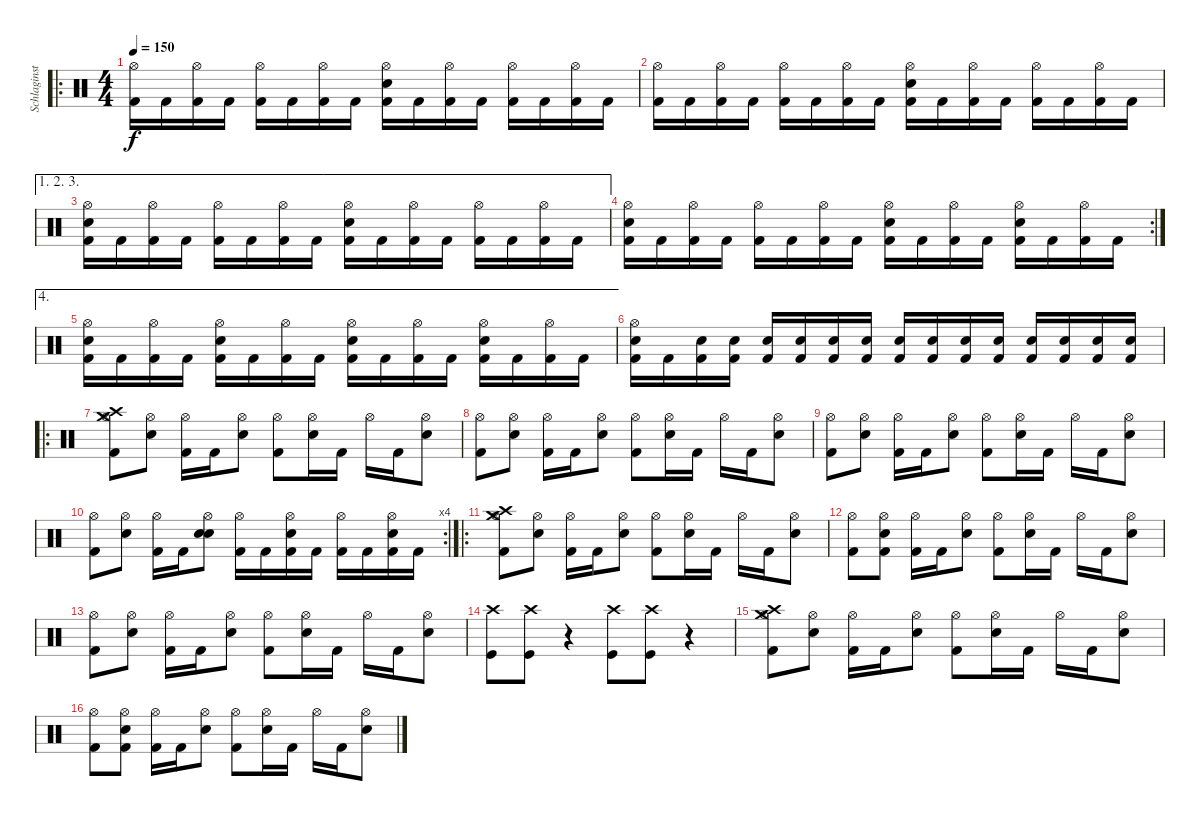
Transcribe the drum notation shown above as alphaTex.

\track ("Schlaginstrumente - Auswahl" "Schlaginst") {instrument percussion}
\staff {score}
\articulation defaults
\ro
\ts (4 4)
\tempo 150
\clef neutral
\ks c
("Hi-Hat (open)" "Kick (hit) 2").16{dy f} "Kick (hit) 2".16 ("Hi-Hat (open)" "Kick (hit) 2").16 "Kick (hit) 2".16 ("Hi-Hat (open)" "Kick (hit) 2").16 "Kick (hit) 2".16 ("Hi-Hat (open)" "Kick (hit) 2").16 "Kick (hit) 2".16 ("Hi-Hat (open)" "Electric Snare (hit)" "Kick (hit) 2").16 "Kick (hit) 2".16 ("Hi-Hat (open)" "Kick (hit) 2").16 "Kick (hit) 2".16 ("Hi-Hat (open)" "Kick (hit) 2").16 "Kick (hit) 2".16 ("Hi-Hat (open)" "Kick (hit) 2").16 "Kick (hit) 2".16 |
("Hi-Hat (open)" "Kick (hit) 2").16 "Kick (hit) 2".16 ("Hi-Hat (open)" "Kick (hit) 2").16 "Kick (hit) 2".16 ("Hi-Hat (open)" "Kick (hit) 2").16 "Kick (hit) 2".16 ("Hi-Hat (open)" "Kick (hit) 2").16 "Kick (hit) 2".16 ("Hi-Hat (open)" "Electric Snare (hit)" "Kick (hit) 2").16 "Kick (hit) 2".16 ("Hi-Hat (open)" "Kick (hit) 2").16 "Kick (hit) 2".16 ("Hi-Hat (open)" "Kick (hit) 2").16 "Kick (hit) 2".16 ("Hi-Hat (open)" "Kick (hit) 2").16 "Kick (hit) 2".16 |
\ae (1 2 3)
("Hi-Hat (open)" "Electric Snare (hit)" "Kick (hit) 2").16 "Kick (hit) 2".16 ("Hi-Hat (open)" "Kick (hit) 2").16 "Kick (hit) 2".16 ("Hi-Hat (open)" "Kick (hit) 2").16 "Kick (hit) 2".16 ("Hi-Hat (open)" "Kick (hit) 2").16 "Kick (hit) 2".16 ("Hi-Hat (open)" "Electric Snare (hit)" "Kick (hit) 2").16 "Kick (hit) 2".16 ("Hi-Hat (open)" "Kick (hit) 2").16 "Kick (hit) 2".16 ("Hi-Hat (open)" "Kick (hit) 2").16 "Kick (hit) 2".16 ("Hi-Hat (open)" "Kick (hit) 2").16 "Kick (hit) 2".16 |
\rc 2
("Hi-Hat (open)" "Electric Snare (hit)" "Kick (hit) 2").16 "Kick (hit) 2".16 ("Hi-Hat (open)" "Kick (hit) 2").16 "Kick (hit) 2".16 ("Hi-Hat (open)" "Kick (hit) 2").16 "Kick (hit) 2".16 ("Hi-Hat (open)" "Kick (hit) 2").16 "Kick (hit) 2".16 ("Hi-Hat (open)" "Electric Snare (hit)" "Kick (hit) 2").16 "Kick (hit) 2".16 ("Hi-Hat (open)" "Kick (hit) 2").16 "Kick (hit) 2".16 ("Hi-Hat (open)" "Electric Snare (hit)" "Kick (hit) 2").16 "Kick (hit) 2".16 ("Hi-Hat (open)" "Kick (hit) 2").16 "Kick (hit) 2".16 |
\ae 4
("Hi-Hat (open)" "Electric Snare (hit)" "Kick (hit) 2").16 "Kick (hit) 2".16 ("Hi-Hat (open)" "Kick (hit) 2").16 "Kick (hit) 2".16 ("Hi-Hat (open)" "Electric Snare (hit)" "Kick (hit) 2").16 "Kick (hit) 2".16 ("Hi-Hat (open)" "Kick (hit) 2").16 "Kick (hit) 2".16 ("Hi-Hat (open)" "Electric Snare (hit)" "Kick (hit) 2").16 "Kick (hit) 2".16 ("Hi-Hat (open)" "Kick (hit) 2").16 "Kick (hit) 2".16 ("Hi-Hat (open)" "Electric Snare (hit)" "Kick (hit) 2").16 "Kick (hit) 2".16 ("Hi-Hat (open)" "Kick (hit) 2").16 "Kick (hit) 2".16 |
("Hi-Hat (open)" "Electric Snare (hit)" "Kick (hit) 2").16 "Kick (hit) 2".16 ("Electric Snare (hit)" "Kick (hit) 2").16 ("Electric Snare (hit)" "Kick (hit) 2").16 ("Electric Snare (hit)" "Kick (hit) 2").16 ("Electric Snare (hit)" "Kick (hit) 2").16 ("Electric Snare (hit)" "Kick (hit) 2").16 ("Electric Snare (hit)" "Kick (hit) 2").16 ("Electric Snare (hit)" "Kick (hit) 2").16 ("Electric Snare (hit)" "Kick (hit) 2").16 ("Electric Snare (hit)" "Kick (hit) 2").16 ("Electric Snare (hit)" "Kick (hit) 2").16 ("Electric Snare (hit)" "Kick (hit) 2").16 ("Electric Snare (hit)" "Kick (hit) 2").16 ("Electric Snare (hit)" "Kick (hit) 2").16 ("Electric Snare (hit)" "Kick (hit) 2").16 |
\ro
("Crash high (hit)" "Crash medium (hit)" "Hi-Hat (open)" "Kick (hit) 2").8 ("Electric Snare (hit)" "Hi-Hat (open)").8 ("Hi-Hat (open)" "Kick (hit) 2").16 "Kick (hit) 2".16 ("Hi-Hat (open)" "Electric Snare (hit)").8 ("Hi-Hat (open)" "Kick (hit) 2").8 ("Hi-Hat (open)" "Electric Snare (hit)").16 "Kick (hit) 2".16 "Hi-Hat (open)".16 "Kick (hit) 2".16 ("Hi-Hat (open)" "Electric Snare (hit)").8 |
("Hi-Hat (open)" "Kick (hit) 2").8 ("Electric Snare (hit)" "Hi-Hat (open)").8 ("Hi-Hat (open)" "Kick (hit) 2").16 "Kick (hit) 2".16 ("Hi-Hat (open)" "Electric Snare (hit)").8 ("Hi-Hat (open)" "Kick (hit) 2").8 ("Hi-Hat (open)" "Electric Snare (hit)").16 "Kick (hit) 2".16 "Hi-Hat (open)".16 "Kick (hit) 2".16 ("Hi-Hat (open)" "Electric Snare (hit)").8 |
("Hi-Hat (open)" "Kick (hit) 2").8 ("Electric Snare (hit)" "Hi-Hat (open)").8 ("Hi-Hat (open)" "Kick (hit) 2").16 "Kick (hit) 2".16 ("Hi-Hat (open)" "Electric Snare (hit)").8 ("Hi-Hat (open)" "Kick (hit) 2").8 ("Hi-Hat (open)" "Electric Snare (hit)").16 "Kick (hit) 2".16 "Hi-Hat (open)".16 "Kick (hit) 2".16 ("Hi-Hat (open)" "Electric Snare (hit)").8 |
\rc 4
("Hi-Hat (open)" "Kick (hit) 2").8 ("Electric Snare (hit)" "Hi-Hat (open)").8 ("Hi-Hat (open)" "Kick (hit) 2").16 "Kick (hit) 2".16 ("Electric Snare (hit)" "Hi-Hat (open)" "Electric Snare (hit)").8 ("Hi-Hat (open)" "Kick (hit) 2").16 "Kick (hit) 2".16 ("Electric Snare (hit)" "Hi-Hat (open)" "Kick (hit) 2").16 "Kick (hit) 2".16 ("Hi-Hat (open)" "Kick (hit) 2").16 "Kick (hit) 2".16 ("Electric Snare (hit)" "Hi-Hat (open)" "Kick (hit) 2").16 "Kick (hit) 2".16 |
\ro
("Crash high (hit)" "Crash medium (hit)" "Hi-Hat (open)" "Kick (hit) 2").8 ("Electric Snare (hit)" "Hi-Hat (open)").8 ("Hi-Hat (open)" "Kick (hit) 2").16 "Kick (hit) 2".16 ("Hi-Hat (open)" "Electric Snare (hit)").8 ("Hi-Hat (open)" "Kick (hit) 2").8 ("Hi-Hat (open)" "Electric Snare (hit)").16 "Kick (hit) 2".16 "Hi-Hat (open)".16 "Kick (hit) 2".16 ("Hi-Hat (open)" "Electric Snare (hit)").8 |
("Hi-Hat (open)" "Kick (hit) 2").8 ("Electric Snare (hit)" "Hi-Hat (open)" "Kick (hit) 2").8 ("Hi-Hat (open)" "Kick (hit) 2").16 "Kick (hit) 2".16 ("Hi-Hat (open)" "Electric Snare (hit)").8 ("Hi-Hat (open)" "Kick (hit) 2").8 ("Hi-Hat (open)" "Electric Snare (hit)").16 "Kick (hit) 2".16 "Hi-Hat (open)".16 "Kick (hit) 2".16 ("Hi-Hat (open)" "Electric Snare (hit)").8 |
("Hi-Hat (open)" "Kick (hit) 2").8 ("Electric Snare (hit)" "Hi-Hat (open)").8 ("Hi-Hat (open)" "Kick (hit) 2").16 "Kick (hit) 2".16 ("Hi-Hat (open)" "Electric Snare (hit)").8 ("Hi-Hat (open)" "Kick (hit) 2").8 ("Hi-Hat (open)" "Electric Snare (hit)").16 "Kick (hit) 2".16 "Hi-Hat (open)".16 "Kick (hit) 2".16 ("Hi-Hat (open)" "Electric Snare (hit)").8 |
("Crash high (hit)" "Kick (hit)").8 ("Crash high (hit)" "Kick (hit)").8 r.4 ("Crash high (hit)" "Kick (hit)").8 ("Crash high (hit)" "Kick (hit)").8 r.4 |
("Crash high (hit)" "Crash medium (hit)" "Hi-Hat (open)" "Kick (hit) 2").8 ("Electric Snare (hit)" "Hi-Hat (open)").8 ("Hi-Hat (open)" "Kick (hit) 2").16 "Kick (hit) 2".16 ("Hi-Hat (open)" "Electric Snare (hit)").8 ("Hi-Hat (open)" "Kick (hit) 2").8 ("Hi-Hat (open)" "Electric Snare (hit)").16 "Kick (hit) 2".16 "Hi-Hat (open)".16 "Kick (hit) 2".16 ("Hi-Hat (open)" "Electric Snare (hit)").8 |
("Hi-Hat (open)" "Kick (hit) 2").8 ("Electric Snare (hit)" "Hi-Hat (open)" "Kick (hit) 2").8 ("Hi-Hat (open)" "Kick (hit) 2").16 "Kick (hit) 2".16 ("Hi-Hat (open)" "Electric Snare (hit)").8 ("Hi-Hat (open)" "Kick (hit) 2").8 ("Hi-Hat (open)" "Electric Snare (hit)").16 "Kick (hit) 2".16 "Hi-Hat (open)".16 "Kick (hit) 2".16 ("Hi-Hat (open)" "Electric Snare (hit)").8
